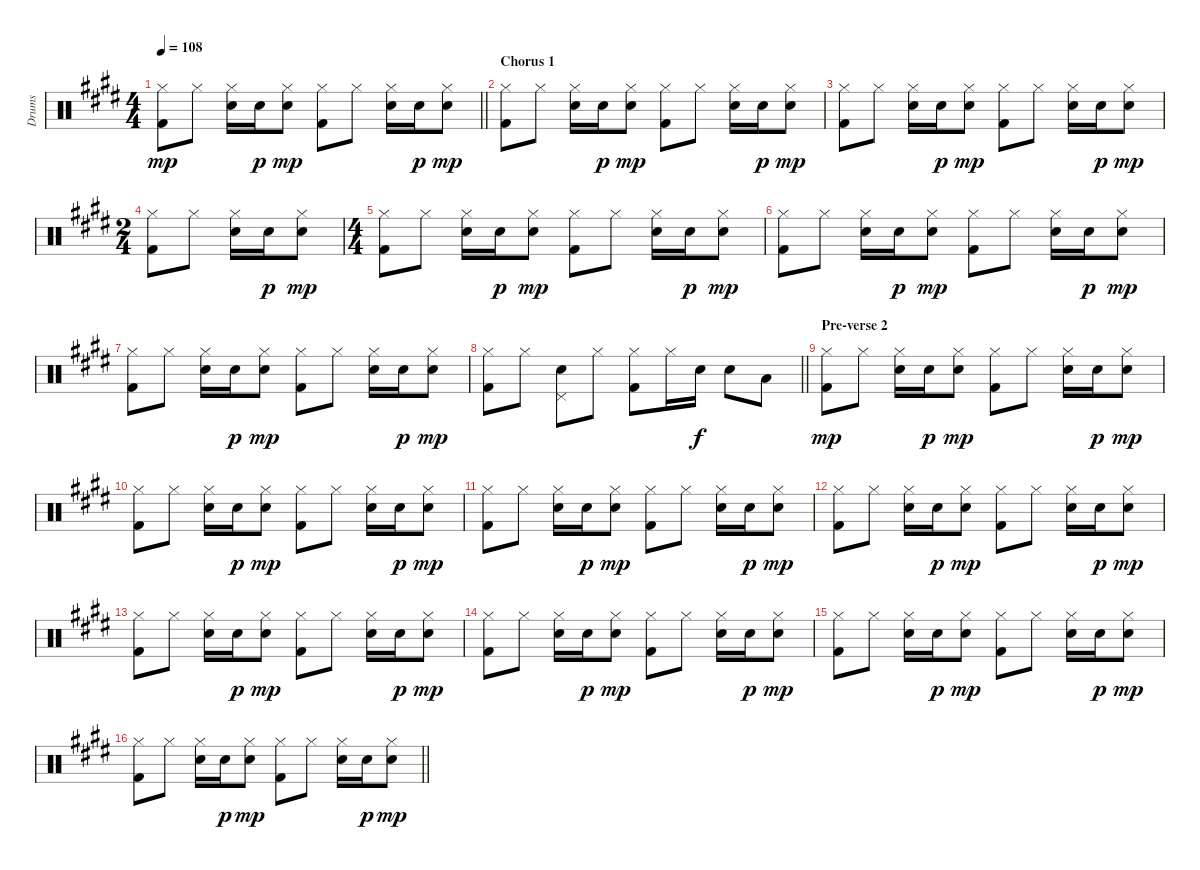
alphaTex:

\track ("Drums" "Drums") {instrument percussion bank 7}
\staff {score}
\articulation defaults
\ts (4 4)
\tempo 108
\clef neutral
\barLineRight lightlight
\ks e
("Hi-Hat (closed)" "Kick (hit) 2").8{dy mp} "Hi-Hat (closed)".8 ("Electric Snare (hit)" "Hi-Hat (closed)").16 "Electric Snare (hit)".16{dy p} ("Electric Snare (hit)" "Hi-Hat (closed)").8{dy mp} ("Hi-Hat (closed)" "Kick (hit) 2").8 "Hi-Hat (closed)".8 ("Electric Snare (hit)" "Hi-Hat (closed)").16 "Electric Snare (hit)".16{dy p} ("Electric Snare (hit)" "Hi-Hat (closed)").8{dy mp} |
\section ("" "Chorus 1")
("Hi-Hat (closed)" "Kick (hit) 2").8 "Hi-Hat (closed)".8 ("Electric Snare (hit)" "Hi-Hat (closed)").16 "Electric Snare (hit)".16{dy p} ("Electric Snare (hit)" "Hi-Hat (closed)").8{dy mp} ("Hi-Hat (closed)" "Kick (hit) 2").8 "Hi-Hat (closed)".8 ("Electric Snare (hit)" "Hi-Hat (closed)").16 "Electric Snare (hit)".16{dy p} ("Electric Snare (hit)" "Hi-Hat (closed)").8{dy mp} |
("Hi-Hat (closed)" "Kick (hit) 2").8 "Hi-Hat (closed)".8 ("Electric Snare (hit)" "Hi-Hat (closed)").16 "Electric Snare (hit)".16{dy p} ("Electric Snare (hit)" "Hi-Hat (closed)").8{dy mp} ("Hi-Hat (closed)" "Kick (hit) 2").8 "Hi-Hat (closed)".8 ("Electric Snare (hit)" "Hi-Hat (closed)").16 "Electric Snare (hit)".16{dy p} ("Electric Snare (hit)" "Hi-Hat (closed)").8{dy mp} |
\ts (2 4)
("Hi-Hat (closed)" "Kick (hit) 2").8 "Hi-Hat (closed)".8 ("Electric Snare (hit)" "Hi-Hat (closed)").16 "Electric Snare (hit)".16{dy p} ("Electric Snare (hit)" "Hi-Hat (closed)").8{dy mp} |
\ts (4 4)
("Hi-Hat (closed)" "Kick (hit) 2").8 "Hi-Hat (closed)".8 ("Electric Snare (hit)" "Hi-Hat (closed)").16 "Electric Snare (hit)".16{dy p} ("Electric Snare (hit)" "Hi-Hat (closed)").8{dy mp} ("Hi-Hat (closed)" "Kick (hit) 2").8 "Hi-Hat (closed)".8 ("Electric Snare (hit)" "Hi-Hat (closed)").16 "Electric Snare (hit)".16{dy p} ("Electric Snare (hit)" "Hi-Hat (closed)").8{dy mp} |
("Hi-Hat (closed)" "Kick (hit) 2").8 "Hi-Hat (closed)".8 ("Electric Snare (hit)" "Hi-Hat (closed)").16 "Electric Snare (hit)".16{dy p} ("Electric Snare (hit)" "Hi-Hat (closed)").8{dy mp} ("Hi-Hat (closed)" "Kick (hit) 2").8 "Hi-Hat (closed)".8 ("Electric Snare (hit)" "Hi-Hat (closed)").16 "Electric Snare (hit)".16{dy p} ("Electric Snare (hit)" "Hi-Hat (closed)").8{dy mp} |
("Hi-Hat (closed)" "Kick (hit) 2").8 "Hi-Hat (closed)".8 ("Electric Snare (hit)" "Hi-Hat (closed)").16 "Electric Snare (hit)".16{dy p} ("Electric Snare (hit)" "Hi-Hat (closed)").8{dy mp} ("Hi-Hat (closed)" "Kick (hit) 2").8 "Hi-Hat (closed)".8 ("Electric Snare (hit)" "Hi-Hat (closed)").16 "Electric Snare (hit)".16{dy p} ("Electric Snare (hit)" "Hi-Hat (closed)").8{dy mp} |
\barLineRight lightlight
("Hi-Hat (closed)" "Kick (hit) 2").8 "Hi-Hat (closed)".8 ("Electric Snare (hit)" "Pedal Hi-Hat (hit)").8 "Hi-Hat (closed)".8 ("Hi-Hat (closed)" "Kick (hit) 2").8 "Hi-Hat (closed)".16 "Electric Snare (hit)".16{dy f} "Electric Snare (hit)".8 "Low Tom (hit)".8 |
\section ("" "Pre-verse 2")
("Hi-Hat (closed)" "Kick (hit) 2").8{dy mp} "Hi-Hat (closed)".8 ("Electric Snare (hit)" "Hi-Hat (closed)").16 "Electric Snare (hit)".16{dy p} ("Electric Snare (hit)" "Hi-Hat (closed)").8{dy mp} ("Hi-Hat (closed)" "Kick (hit) 2").8 "Hi-Hat (closed)".8 ("Electric Snare (hit)" "Hi-Hat (closed)").16 "Electric Snare (hit)".16{dy p} ("Electric Snare (hit)" "Hi-Hat (closed)").8{dy mp} |
("Hi-Hat (closed)" "Kick (hit) 2").8 "Hi-Hat (closed)".8 ("Electric Snare (hit)" "Hi-Hat (closed)").16 "Electric Snare (hit)".16{dy p} ("Electric Snare (hit)" "Hi-Hat (closed)").8{dy mp} ("Hi-Hat (closed)" "Kick (hit) 2").8 "Hi-Hat (closed)".8 ("Electric Snare (hit)" "Hi-Hat (closed)").16 "Electric Snare (hit)".16{dy p} ("Electric Snare (hit)" "Hi-Hat (closed)").8{dy mp} |
("Hi-Hat (closed)" "Kick (hit) 2").8 "Hi-Hat (closed)".8 ("Electric Snare (hit)" "Hi-Hat (closed)").16 "Electric Snare (hit)".16{dy p} ("Electric Snare (hit)" "Hi-Hat (closed)").8{dy mp} ("Hi-Hat (closed)" "Kick (hit) 2").8 "Hi-Hat (closed)".8 ("Electric Snare (hit)" "Hi-Hat (closed)").16 "Electric Snare (hit)".16{dy p} ("Electric Snare (hit)" "Hi-Hat (closed)").8{dy mp} |
("Hi-Hat (closed)" "Kick (hit) 2").8 "Hi-Hat (closed)".8 ("Electric Snare (hit)" "Hi-Hat (closed)").16 "Electric Snare (hit)".16{dy p} ("Electric Snare (hit)" "Hi-Hat (closed)").8{dy mp} ("Hi-Hat (closed)" "Kick (hit) 2").8 "Hi-Hat (closed)".8 ("Electric Snare (hit)" "Hi-Hat (closed)").16 "Electric Snare (hit)".16{dy p} ("Electric Snare (hit)" "Hi-Hat (closed)").8{dy mp} |
("Hi-Hat (closed)" "Kick (hit) 2").8 "Hi-Hat (closed)".8 ("Electric Snare (hit)" "Hi-Hat (closed)").16 "Electric Snare (hit)".16{dy p} ("Electric Snare (hit)" "Hi-Hat (closed)").8{dy mp} ("Hi-Hat (closed)" "Kick (hit) 2").8 "Hi-Hat (closed)".8 ("Electric Snare (hit)" "Hi-Hat (closed)").16 "Electric Snare (hit)".16{dy p} ("Electric Snare (hit)" "Hi-Hat (closed)").8{dy mp} |
("Hi-Hat (closed)" "Kick (hit) 2").8 "Hi-Hat (closed)".8 ("Electric Snare (hit)" "Hi-Hat (closed)").16 "Electric Snare (hit)".16{dy p} ("Electric Snare (hit)" "Hi-Hat (closed)").8{dy mp} ("Hi-Hat (closed)" "Kick (hit) 2").8 "Hi-Hat (closed)".8 ("Electric Snare (hit)" "Hi-Hat (closed)").16 "Electric Snare (hit)".16{dy p} ("Electric Snare (hit)" "Hi-Hat (closed)").8{dy mp} |
("Hi-Hat (closed)" "Kick (hit) 2").8 "Hi-Hat (closed)".8 ("Electric Snare (hit)" "Hi-Hat (closed)").16 "Electric Snare (hit)".16{dy p} ("Electric Snare (hit)" "Hi-Hat (closed)").8{dy mp} ("Hi-Hat (closed)" "Kick (hit) 2").8 "Hi-Hat (closed)".8 ("Electric Snare (hit)" "Hi-Hat (closed)").16 "Electric Snare (hit)".16{dy p} ("Electric Snare (hit)" "Hi-Hat (closed)").8{dy mp} |
\barLineRight lightlight
("Hi-Hat (closed)" "Kick (hit) 2").8 "Hi-Hat (closed)".8 ("Electric Snare (hit)" "Hi-Hat (closed)").16 "Electric Snare (hit)".16{dy p} ("Electric Snare (hit)" "Hi-Hat (closed)").8{dy mp} ("Hi-Hat (closed)" "Kick (hit) 2").8 "Hi-Hat (closed)".8 ("Electric Snare (hit)" "Hi-Hat (closed)").16 "Electric Snare (hit)".16{dy p} ("Electric Snare (hit)" "Hi-Hat (closed)").8{dy mp}
